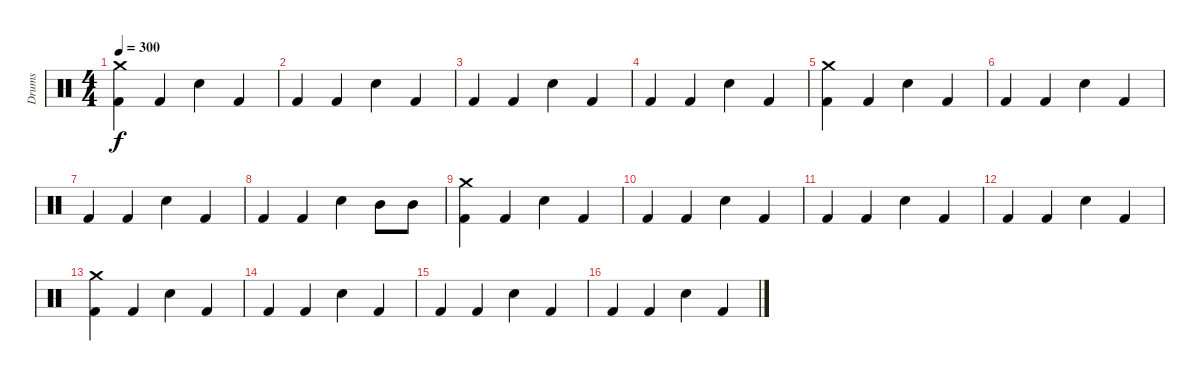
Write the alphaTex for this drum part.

\track ("Drums" "Drums") {instrument percussion}
\staff {score}
\articulation defaults
\ts (4 4)
\tempo 300
\clef neutral
\ks c
("Crash medium (hit)" "Kick (hit) 2").4{dy f} "Kick (hit) 2".4 "Snare (hit) 2".4 "Kick (hit) 2".4 |
"Kick (hit) 2".4 "Kick (hit) 2".4 "Snare (hit) 2".4 "Kick (hit) 2".4 |
"Kick (hit) 2".4 "Kick (hit) 2".4 "Snare (hit) 2".4 "Kick (hit) 2".4 |
"Kick (hit) 2".4 "Kick (hit) 2".4 "Snare (hit) 2".4 "Kick (hit) 2".4 |
("Crash medium (hit)" "Kick (hit) 2").4 "Kick (hit) 2".4 "Snare (hit) 2".4 "Kick (hit) 2".4 |
"Kick (hit) 2".4 "Kick (hit) 2".4 "Snare (hit) 2".4 "Kick (hit) 2".4 |
"Kick (hit) 2".4 "Kick (hit) 2".4 "Snare (hit) 2".4 "Kick (hit) 2".4 |
"Kick (hit) 2".4 "Kick (hit) 2".4 "Snare (hit) 2".4 "Mid Tom (hit)".8 "Mid Tom (hit)".8 |
("Crash medium (hit)" "Kick (hit) 2").4 "Kick (hit) 2".4 "Snare (hit) 2".4 "Kick (hit) 2".4 |
"Kick (hit) 2".4 "Kick (hit) 2".4 "Snare (hit) 2".4 "Kick (hit) 2".4 |
"Kick (hit) 2".4 "Kick (hit) 2".4 "Snare (hit) 2".4 "Kick (hit) 2".4 |
"Kick (hit) 2".4 "Kick (hit) 2".4 "Snare (hit) 2".4 "Kick (hit) 2".4 |
("Crash medium (hit)" "Kick (hit) 2").4 "Kick (hit) 2".4 "Snare (hit) 2".4 "Kick (hit) 2".4 |
"Kick (hit) 2".4 "Kick (hit) 2".4 "Snare (hit) 2".4 "Kick (hit) 2".4 |
"Kick (hit) 2".4 "Kick (hit) 2".4 "Snare (hit) 2".4 "Kick (hit) 2".4 |
"Kick (hit) 2".4 "Kick (hit) 2".4 "Snare (hit) 2".4 "Kick (hit) 2".4
